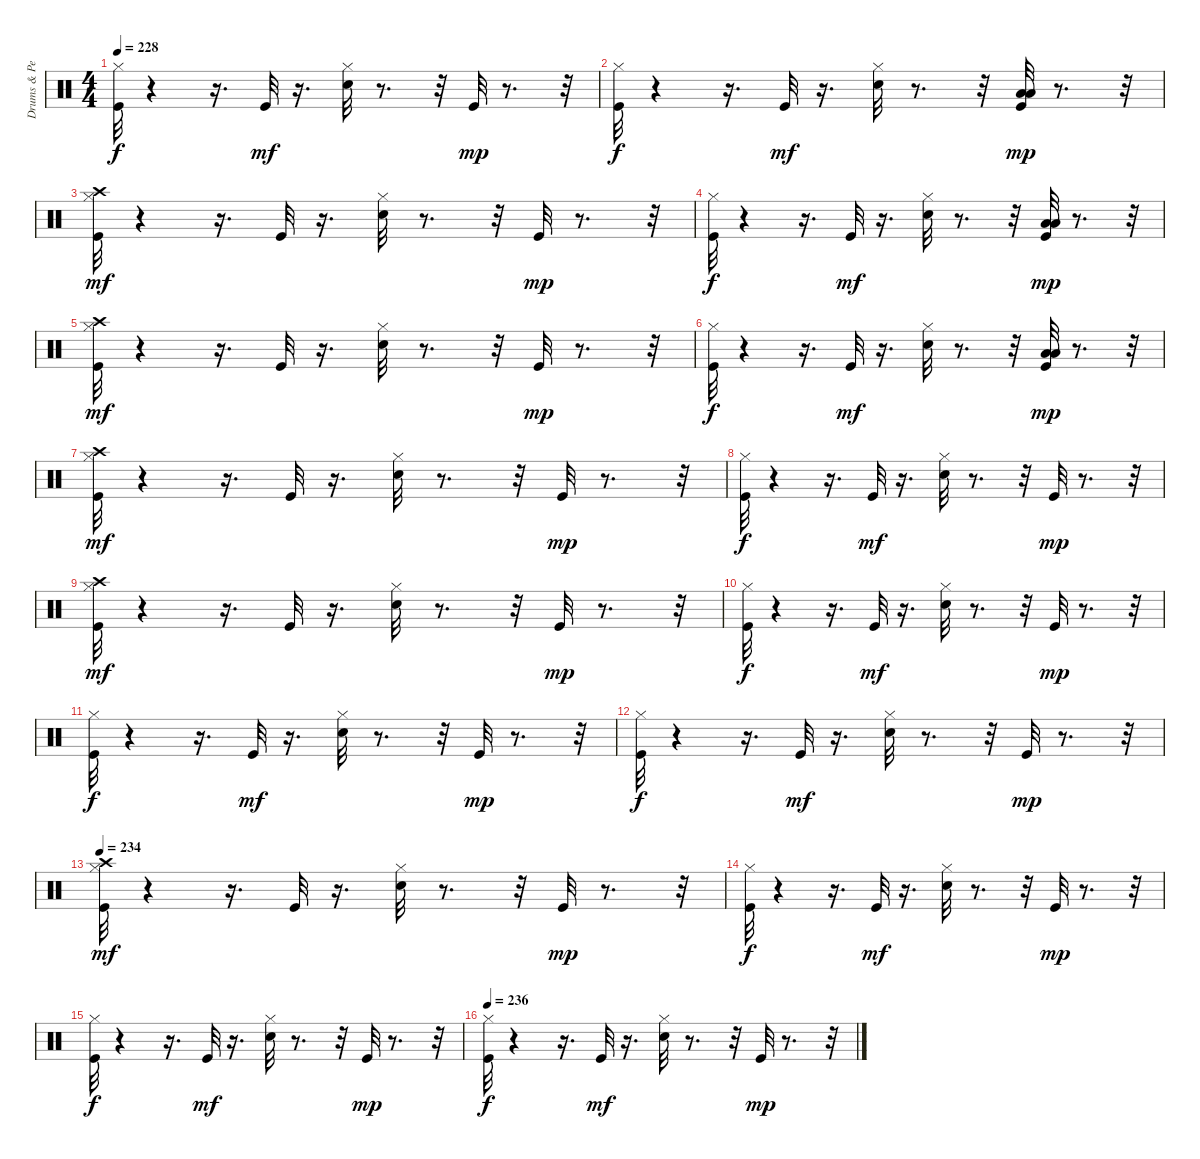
\track ("Drums & Percussion" "Drums & Pe") {instrument percussion}
\staff {score}
\articulation defaults
\ts (4 4)
\tempo 228
\clef neutral
\ks c
("Kick (hit)" "Hi-Hat (closed)").32{dy f} r.4 r.16{d} "Kick (hit)".32{dy mf} r.16{d} ("Hi-Hat (closed)" "Snare (hit) 2").32 r.8{d} r.32 "Kick (hit)".32{dy mp} r.8{d} r.32 |
("Kick (hit)" "Hi-Hat (closed)").32{dy f} r.4 r.16{d} "Kick (hit)".32{dy mf} r.16{d} ("Hi-Hat (closed)" "Snare (hit) 2").32 r.8{d} r.32 ("Low Tom (hit)" "Low Floor Tom (hit)" "Kick (hit)").32{dy mp} r.8{d} r.32 |
("Crash high (hit)" "Kick (hit)" "Hi-Hat (closed)").32{dy mf} r.4 r.16{d} "Kick (hit)".32 r.16{d} ("Hi-Hat (closed)" "Snare (hit) 2").32 r.8{d} r.32 "Kick (hit)".32{dy mp} r.8{d} r.32 |
("Kick (hit)" "Hi-Hat (closed)").32{dy f} r.4 r.16{d} "Kick (hit)".32{dy mf} r.16{d} ("Hi-Hat (closed)" "Snare (hit) 2").32 r.8{d} r.32 ("Low Tom (hit)" "Low Floor Tom (hit)" "Kick (hit)").32{dy mp} r.8{d} r.32 |
("Crash high (hit)" "Kick (hit)" "Hi-Hat (closed)").32{dy mf} r.4 r.16{d} "Kick (hit)".32 r.16{d} ("Hi-Hat (closed)" "Snare (hit) 2").32 r.8{d} r.32 "Kick (hit)".32{dy mp} r.8{d} r.32 |
("Kick (hit)" "Hi-Hat (closed)").32{dy f} r.4 r.16{d} "Kick (hit)".32{dy mf} r.16{d} ("Hi-Hat (closed)" "Snare (hit) 2").32 r.8{d} r.32 ("Low Tom (hit)" "Low Floor Tom (hit)" "Kick (hit)").32{dy mp} r.8{d} r.32 |
("Crash high (hit)" "Kick (hit)" "Hi-Hat (closed)").32{dy mf} r.4 r.16{d} "Kick (hit)".32 r.16{d} ("Hi-Hat (closed)" "Snare (hit) 2").32 r.8{d} r.32 "Kick (hit)".32{dy mp} r.8{d} r.32 |
("Kick (hit)" "Hi-Hat (closed)").32{dy f} r.4 r.16{d} "Kick (hit)".32{dy mf} r.16{d} ("Hi-Hat (closed)" "Snare (hit) 2").32 r.8{d} r.32 "Kick (hit)".32{dy mp} r.8{d} r.32 |
("Crash high (hit)" "Kick (hit)" "Hi-Hat (closed)").32{dy mf} r.4 r.16{d} "Kick (hit)".32 r.16{d} ("Hi-Hat (closed)" "Snare (hit) 2").32 r.8{d} r.32 "Kick (hit)".32{dy mp} r.8{d} r.32 |
("Kick (hit)" "Hi-Hat (closed)").32{dy f} r.4 r.16{d} "Kick (hit)".32{dy mf} r.16{d} ("Hi-Hat (closed)" "Snare (hit) 2").32 r.8{d} r.32 "Kick (hit)".32{dy mp} r.8{d} r.32 |
("Kick (hit)" "Hi-Hat (closed)").32{dy f} r.4 r.16{d} "Kick (hit)".32{dy mf} r.16{d} ("Hi-Hat (closed)" "Snare (hit) 2").32 r.8{d} r.32 "Kick (hit)".32{dy mp} r.8{d} r.32 |
("Kick (hit)" "Hi-Hat (closed)").32{dy f} r.4 r.16{d} "Kick (hit)".32{dy mf} r.16{d} ("Hi-Hat (closed)" "Snare (hit) 2").32 r.8{d} r.32 "Kick (hit)".32{dy mp} r.8{d} r.32 |
\tempo 234
("Crash high (hit)" "Kick (hit)" "Hi-Hat (closed)").32{dy mf} r.4 r.16{d} "Kick (hit)".32 r.16{d} ("Hi-Hat (closed)" "Snare (hit) 2").32 r.8{d} r.32 "Kick (hit)".32{dy mp} r.8{d} r.32 |
("Kick (hit)" "Hi-Hat (closed)").32{dy f} r.4 r.16{d} "Kick (hit)".32{dy mf} r.16{d} ("Hi-Hat (closed)" "Snare (hit) 2").32 r.8{d} r.32 "Kick (hit)".32{dy mp} r.8{d} r.32 |
("Kick (hit)" "Hi-Hat (closed)").32{dy f} r.4 r.16{d} "Kick (hit)".32{dy mf} r.16{d} ("Hi-Hat (closed)" "Snare (hit) 2").32 r.8{d} r.32 "Kick (hit)".32{dy mp} r.8{d} r.32 |
\tempo 236
("Kick (hit)" "Hi-Hat (closed)").32{dy f} r.4 r.16{d} "Kick (hit)".32{dy mf} r.16{d} ("Hi-Hat (closed)" "Snare (hit) 2").32 r.8{d} r.32 "Kick (hit)".32{dy mp} r.8{d} r.32
